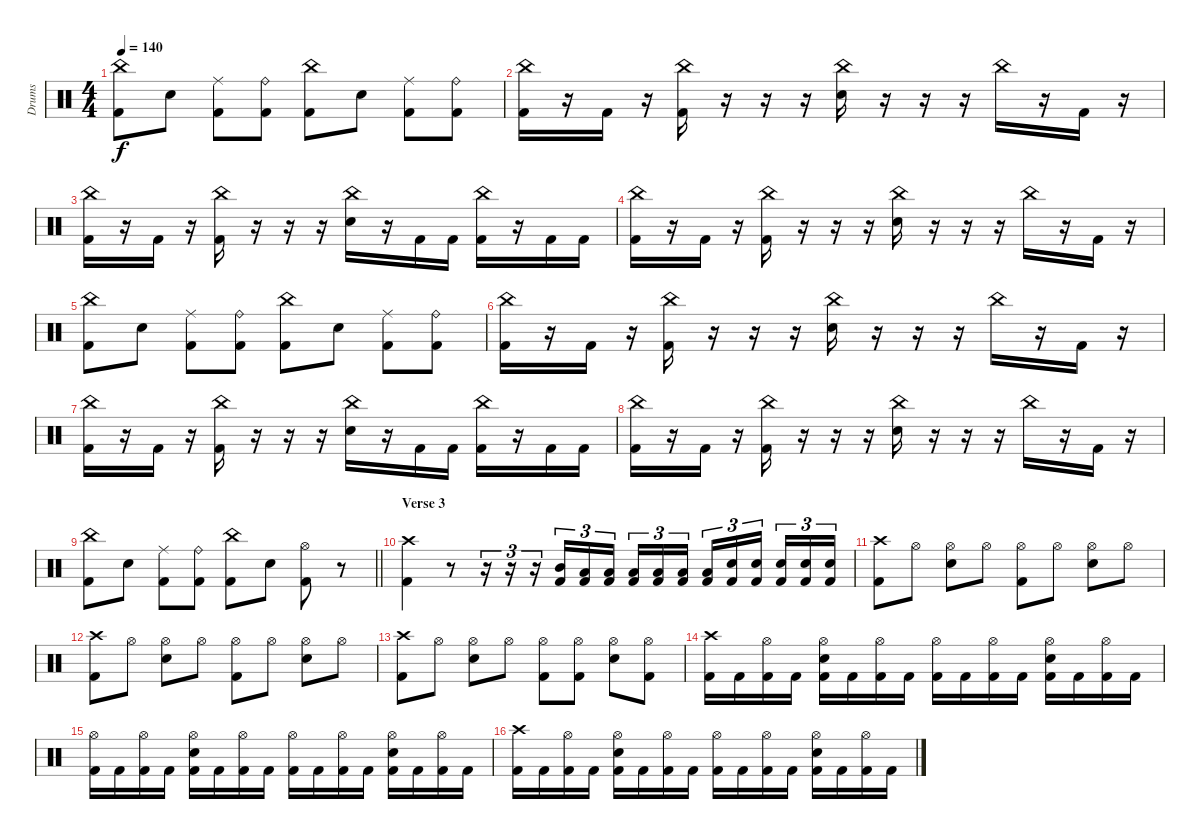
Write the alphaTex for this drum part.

\track ("Drums" "Drums") {instrument percussion}
\staff {score}
\articulation defaults
\ts (4 4)
\tempo 140
\clef neutral
\ks c
("China (hit)" "Kick (hit) 2").8{dy f} "Snare (hit) 2".8 ("Ride (middle)" "Kick (hit) 2").8 ("Ride (bell)" "Kick (hit) 2").8 ("China (hit)" "Kick (hit) 2").8 "Snare (hit) 2".8 ("Ride (middle)" "Kick (hit) 2").8 ("Ride (bell)" "Kick (hit) 2").8 |
("China (hit)" "Kick (hit) 2").16 r.16 "Kick (hit) 2".16 r.16 ("China (hit)" "Kick (hit) 2").16 r.16 r.16 r.16 ("China (hit)" "Snare (hit) 2").16 r.16 r.16 r.16 "China (hit)".16 r.16 "Kick (hit) 2".16 r.16 |
("China (hit)" "Kick (hit) 2").16 r.16 "Kick (hit) 2".16 r.16 ("China (hit)" "Kick (hit) 2").16 r.16 r.16 r.16 ("China (hit)" "Snare (hit) 2").16 r.16 "Kick (hit) 2".16 "Kick (hit) 2".16 ("China (hit)" "Kick (hit) 2").16 r.16 "Kick (hit) 2".16 "Kick (hit) 2".16 |
("China (hit)" "Kick (hit) 2").16 r.16 "Kick (hit) 2".16 r.16 ("China (hit)" "Kick (hit) 2").16 r.16 r.16 r.16 ("China (hit)" "Snare (hit) 2").16 r.16 r.16 r.16 "China (hit)".16 r.16 "Kick (hit) 2".16 r.16 |
("China (hit)" "Kick (hit) 2").8 "Snare (hit) 2".8 ("Ride (middle)" "Kick (hit) 2").8 ("Ride (bell)" "Kick (hit) 2").8 ("China (hit)" "Kick (hit) 2").8 "Snare (hit) 2".8 ("Ride (middle)" "Kick (hit) 2").8 ("Ride (bell)" "Kick (hit) 2").8 |
("China (hit)" "Kick (hit) 2").16 r.16 "Kick (hit) 2".16 r.16 ("China (hit)" "Kick (hit) 2").16 r.16 r.16 r.16 ("China (hit)" "Snare (hit) 2").16 r.16 r.16 r.16 "China (hit)".16 r.16 "Kick (hit) 2".16 r.16 |
("China (hit)" "Kick (hit) 2").16 r.16 "Kick (hit) 2".16 r.16 ("China (hit)" "Kick (hit) 2").16 r.16 r.16 r.16 ("China (hit)" "Snare (hit) 2").16 r.16 "Kick (hit) 2".16 "Kick (hit) 2".16 ("China (hit)" "Kick (hit) 2").16 r.16 "Kick (hit) 2".16 "Kick (hit) 2".16 |
("China (hit)" "Kick (hit) 2").16 r.16 "Kick (hit) 2".16 r.16 ("China (hit)" "Kick (hit) 2").16 r.16 r.16 r.16 ("China (hit)" "Snare (hit) 2").16 r.16 r.16 r.16 "China (hit)".16 r.16 "Kick (hit) 2".16 r.16 |
\barLineRight lightlight
("China (hit)" "Kick (hit) 2").8 "Snare (hit) 2".8 ("Ride (middle)" "Kick (hit) 2").8 ("Ride (bell)" "Kick (hit) 2").8 ("China (hit)" "Kick (hit) 2").8 "Snare (hit) 2".8 ("Hi-Hat (open)" "Kick (hit) 2").8 r.8 |
\section ("" "Verse 3")
("Kick (hit) 2" "Crash high (hit)").4 r.8 r.16{tu (3 2)} r.16{tu (3 2)} r.16{tu (3 2)} ("Mid Tom (hit)" "Kick (hit) 2").16{tu (3 2)} ("Low Tom (hit)" "Kick (hit) 2").16{tu (3 2)} ("Low Tom (hit)" "Kick (hit) 2").16{tu (3 2) beam splitsecondary} ("Low Tom (hit)" "Kick (hit) 2").16{tu (3 2)} ("Low Floor Tom (hit)" "Kick (hit) 2").16{tu (3 2)} ("Low Floor Tom (hit)" "Kick (hit) 2").16{tu (3 2)} ("Low Floor Tom (hit)" "Kick (hit) 2").16{tu (3 2)} ("Snare (hit) 2" "Kick (hit) 2").16{tu (3 2)} ("Snare (hit) 2" "Kick (hit) 2").16{tu (3 2) beam splitsecondary} ("Snare (hit) 2" "Kick (hit) 2").16{tu (3 2)} ("Snare (hit) 2" "Kick (hit) 2").16{tu (3 2)} ("Snare (hit) 2" "Kick (hit) 2").16{tu (3 2)} |
("Crash high (hit)" "Kick (hit) 2").8 "Hi-Hat (open)".8 ("Hi-Hat (open)" "Snare (hit) 2").8 "Hi-Hat (open)".8 ("Hi-Hat (open)" "Kick (hit) 2").8 "Hi-Hat (open)".8 ("Hi-Hat (open)" "Snare (hit) 2").8 "Hi-Hat (open)".8 |
("Crash high (hit)" "Kick (hit) 2").8 "Hi-Hat (open)".8 ("Hi-Hat (open)" "Snare (hit) 2").8 "Hi-Hat (open)".8 ("Hi-Hat (open)" "Kick (hit) 2").8 "Hi-Hat (open)".8 ("Hi-Hat (open)" "Snare (hit) 2").8 "Hi-Hat (open)".8 |
("Crash high (hit)" "Kick (hit) 2").8 "Hi-Hat (open)".8 ("Hi-Hat (open)" "Snare (hit) 2").8 "Hi-Hat (open)".8 ("Hi-Hat (open)" "Kick (hit) 2").8 ("Hi-Hat (open)" "Kick (hit) 2").8 ("Hi-Hat (open)" "Snare (hit) 2").8 ("Hi-Hat (open)" "Kick (hit) 2").8 |
("Crash high (hit)" "Kick (hit) 2").16 "Kick (hit) 2".16 ("Hi-Hat (open)" "Kick (hit) 2").16 "Kick (hit) 2".16 ("Hi-Hat (open)" "Snare (hit) 2" "Kick (hit) 2").16 "Kick (hit) 2".16 ("Hi-Hat (open)" "Kick (hit) 2").16 "Kick (hit) 2".16 ("Hi-Hat (open)" "Kick (hit) 2").16 "Kick (hit) 2".16 ("Hi-Hat (open)" "Kick (hit) 2").16 "Kick (hit) 2".16 ("Hi-Hat (open)" "Snare (hit) 2" "Kick (hit) 2").16 "Kick (hit) 2".16 ("Hi-Hat (open)" "Kick (hit) 2").16 "Kick (hit) 2".16 |
("Hi-Hat (open)" "Kick (hit) 2").16 "Kick (hit) 2".16 ("Hi-Hat (open)" "Kick (hit) 2").16 "Kick (hit) 2".16 ("Hi-Hat (open)" "Snare (hit) 2" "Kick (hit) 2").16 "Kick (hit) 2".16 ("Hi-Hat (open)" "Kick (hit) 2").16 "Kick (hit) 2".16 ("Hi-Hat (open)" "Kick (hit) 2").16 "Kick (hit) 2".16 ("Hi-Hat (open)" "Kick (hit) 2").16 "Kick (hit) 2".16 ("Hi-Hat (open)" "Snare (hit) 2" "Kick (hit) 2").16 "Kick (hit) 2".16 ("Hi-Hat (open)" "Kick (hit) 2").16 "Kick (hit) 2".16 |
("Crash high (hit)" "Kick (hit) 2").16 "Kick (hit) 2".16 ("Hi-Hat (open)" "Kick (hit) 2").16 "Kick (hit) 2".16 ("Hi-Hat (open)" "Snare (hit) 2" "Kick (hit) 2").16 "Kick (hit) 2".16 ("Hi-Hat (open)" "Kick (hit) 2").16 "Kick (hit) 2".16 ("Hi-Hat (open)" "Kick (hit) 2").16 "Kick (hit) 2".16 ("Hi-Hat (open)" "Kick (hit) 2").16 "Kick (hit) 2".16 ("Hi-Hat (open)" "Snare (hit) 2" "Kick (hit) 2").16 "Kick (hit) 2".16 ("Hi-Hat (open)" "Kick (hit) 2").16 "Kick (hit) 2".16
